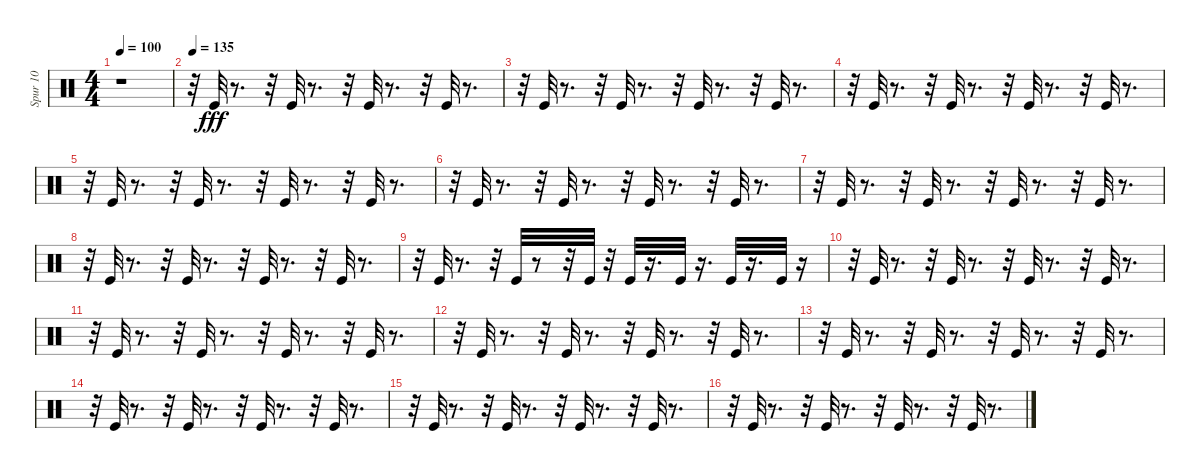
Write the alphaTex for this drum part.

\track ("Spur 10" "Spur 10") {instrument percussion}
\staff {score}
\articulation defaults
\ts (4 4)
\tempo 100
\clef neutral
\ks c
r.1{dy fff} |
\tempo 135
r.32 "Kick (hit)".32 r.8{d} r.32 "Kick (hit)".32 r.8{d} r.32 "Kick (hit)".32 r.8{d} r.32 "Kick (hit)".32 r.8{d} |
r.32 "Kick (hit)".32 r.8{d} r.32 "Kick (hit)".32 r.8{d} r.32 "Kick (hit)".32 r.8{d} r.32 "Kick (hit)".32 r.8{d} |
r.32 "Kick (hit)".32 r.8{d} r.32 "Kick (hit)".32 r.8{d} r.32 "Kick (hit)".32 r.8{d} r.32 "Kick (hit)".32 r.8{d} |
r.32 "Kick (hit)".32 r.8{d} r.32 "Kick (hit)".32 r.8{d} r.32 "Kick (hit)".32 r.8{d} r.32 "Kick (hit)".32 r.8{d} |
r.32 "Kick (hit)".32 r.8{d} r.32 "Kick (hit)".32 r.8{d} r.32 "Kick (hit)".32 r.8{d} r.32 "Kick (hit)".32 r.8{d} |
r.32 "Kick (hit)".32 r.8{d} r.32 "Kick (hit)".32 r.8{d} r.32 "Kick (hit)".32 r.8{d} r.32 "Kick (hit)".32 r.8{d} |
r.32 "Kick (hit)".32 r.8{d} r.32 "Kick (hit)".32 r.8{d} r.32 "Kick (hit)".32 r.8{d} r.32 "Kick (hit)".32 r.8{d} |
r.32 "Kick (hit)".32 r.8{d} r.32 "Kick (hit)".32 r.8 r.32 "Kick (hit)".32 r.32 "Kick (hit)".32 r.16{d} "Kick (hit)".32 r.16{d} "Kick (hit)".32 r.16{d} "Kick (hit)".32 r.16 |
r.32 "Kick (hit)".32 r.8{d} r.32 "Kick (hit)".32 r.8{d} r.32 "Kick (hit)".32 r.8{d} r.32 "Kick (hit)".32 r.8{d} |
r.32 "Kick (hit)".32 r.8{d} r.32 "Kick (hit)".32 r.8{d} r.32 "Kick (hit)".32 r.8{d} r.32 "Kick (hit)".32 r.8{d} |
r.32 "Kick (hit)".32 r.8{d} r.32 "Kick (hit)".32 r.8{d} r.32 "Kick (hit)".32 r.8{d} r.32 "Kick (hit)".32 r.8{d} |
r.32 "Kick (hit)".32 r.8{d} r.32 "Kick (hit)".32 r.8{d} r.32 "Kick (hit)".32 r.8{d} r.32 "Kick (hit)".32 r.8{d} |
r.32 "Kick (hit)".32 r.8{d} r.32 "Kick (hit)".32 r.8{d} r.32 "Kick (hit)".32 r.8{d} r.32 "Kick (hit)".32 r.8{d} |
r.32 "Kick (hit)".32 r.8{d} r.32 "Kick (hit)".32 r.8{d} r.32 "Kick (hit)".32 r.8{d} r.32 "Kick (hit)".32 r.8{d} |
r.32 "Kick (hit)".32 r.8{d} r.32 "Kick (hit)".32 r.8{d} r.32 "Kick (hit)".32 r.8{d} r.32 "Kick (hit)".32 r.8{d}
